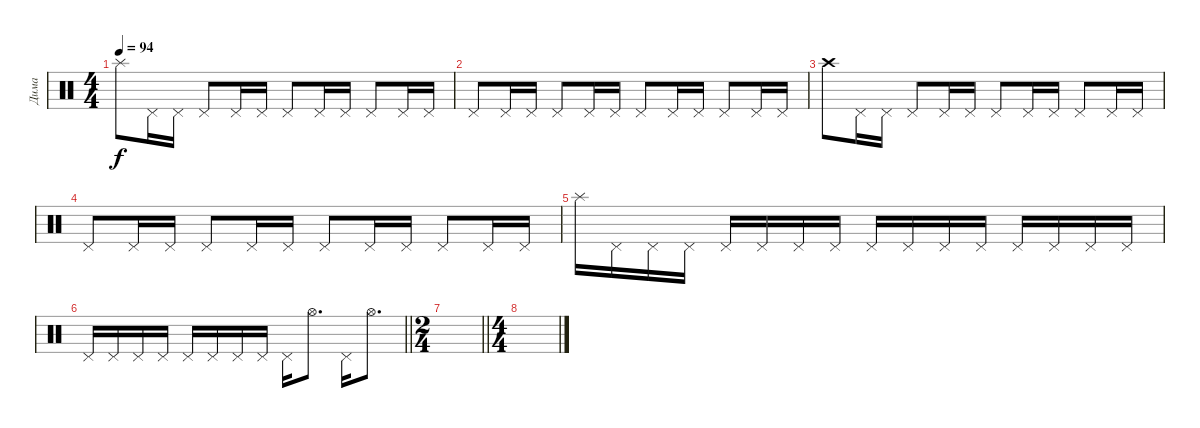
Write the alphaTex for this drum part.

\track ("Дима" "Дима") {instrument percussion}
\staff {score}
\articulation defaults
\ts (4 4)
\tempo 94
\clef neutral
\ks c "Splash (hit)".8{dy f} "Pedal Hi-Hat (hit)".16 "Pedal Hi-Hat (hit)".16 "Pedal Hi-Hat (hit)".8 "Pedal Hi-Hat (hit)".16 "Pedal Hi-Hat (hit)".16 "Pedal Hi-Hat (hit)".8 "Pedal Hi-Hat (hit)".16 "Pedal Hi-Hat (hit)".16 "Pedal Hi-Hat (hit)".8 "Pedal Hi-Hat (hit)".16 "Pedal Hi-Hat (hit)".16
|
"Pedal Hi-Hat (hit)".8 "Pedal Hi-Hat (hit)".16 "Pedal Hi-Hat (hit)".16 "Pedal Hi-Hat (hit)".8 "Pedal Hi-Hat (hit)".16 "Pedal Hi-Hat (hit)".16 "Pedal Hi-Hat (hit)".8 "Pedal Hi-Hat (hit)".16 "Pedal Hi-Hat (hit)".16 "Pedal Hi-Hat (hit)".8 "Pedal Hi-Hat (hit)".16 "Pedal Hi-Hat (hit)".16 |
"Crash high (hit)".8 "Pedal Hi-Hat (hit)".16 "Pedal Hi-Hat (hit)".16 "Pedal Hi-Hat (hit)".8 "Pedal Hi-Hat (hit)".16 "Pedal Hi-Hat (hit)".16 "Pedal Hi-Hat (hit)".8 "Pedal Hi-Hat (hit)".16 "Pedal Hi-Hat (hit)".16 "Pedal Hi-Hat (hit)".8 "Pedal Hi-Hat (hit)".16 "Pedal Hi-Hat (hit)".16 |
"Pedal Hi-Hat (hit)".8 "Pedal Hi-Hat (hit)".16 "Pedal Hi-Hat (hit)".16 "Pedal Hi-Hat (hit)".8 "Pedal Hi-Hat (hit)".16 "Pedal Hi-Hat (hit)".16 "Pedal Hi-Hat (hit)".8 "Pedal Hi-Hat (hit)".16 "Pedal Hi-Hat (hit)".16 "Pedal Hi-Hat (hit)".8 "Pedal Hi-Hat (hit)".16 "Pedal Hi-Hat (hit)".16 |
"Splash (hit)".16 "Pedal Hi-Hat (hit)".16 "Pedal Hi-Hat (hit)".16 "Pedal Hi-Hat (hit)".16 "Pedal Hi-Hat (hit)".16 "Pedal Hi-Hat (hit)".16 "Pedal Hi-Hat (hit)".16 "Pedal Hi-Hat (hit)".16 "Pedal Hi-Hat (hit)".16 "Pedal Hi-Hat (hit)".16 "Pedal Hi-Hat (hit)".16 "Pedal Hi-Hat (hit)".16 "Pedal Hi-Hat (hit)".16 "Pedal Hi-Hat (hit)".16 "Pedal Hi-Hat (hit)".16 "Pedal Hi-Hat (hit)".16 |
\barLineRight lightlight "Pedal Hi-Hat (hit)".16 "Pedal Hi-Hat (hit)".16 "Pedal Hi-Hat (hit)".16 "Pedal Hi-Hat (hit)".16 "Pedal Hi-Hat (hit)".16 "Pedal Hi-Hat (hit)".16 "Pedal Hi-Hat (hit)".16 "Pedal Hi-Hat (hit)".16 "Pedal Hi-Hat (hit)".16 "Hi-Hat (open)".8{d} "Pedal Hi-Hat (hit)".16 "Hi-Hat (open)".8{d}
|
\ts (2 4)
\barLineRight lightlight
|
\ts (4 4)
